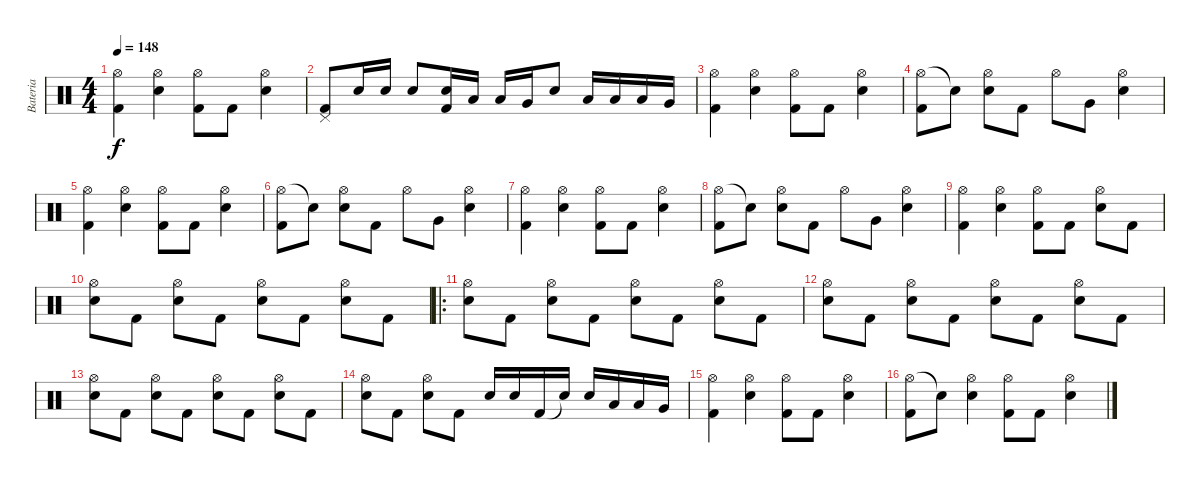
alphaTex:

\track ("Bateria" "Bateria") {instrument percussion}
\staff {score}
\articulation defaults
\ts (4 4)
\tempo 148
\clef neutral
\ks c
("Hi-Hat (open)" "Kick (hit) 2").4{dy f} ("Hi-Hat (open)" "Electric Snare (hit)").4 ("Hi-Hat (open)" "Kick (hit) 2").8 "Kick (hit) 2".8 ("Hi-Hat (open)" "Electric Snare (hit)").4 |
("Pedal Hi-Hat (hit)" "Kick (hit) 2").8 "Electric Snare (hit)".16 "Electric Snare (hit)".16 "Electric Snare (hit)".8 ("Electric Snare (hit)" "Kick (hit) 2").16 "Low Tom (hit)".16 "Low Tom (hit)".16 "Very Low Tom (hit)".16 "Electric Snare (hit)".8 "Low Tom (hit)".16 "Low Tom (hit)".16 "Low Tom (hit)".16 "Very Low Tom (hit)".16 |
("Hi-Hat (open)" "Kick (hit) 2").4 ("Hi-Hat (open)" "Electric Snare (hit)").4 ("Hi-Hat (open)" "Kick (hit) 2").8 "Kick (hit) 2".8 ("Hi-Hat (open)" "Electric Snare (hit)").4 |
("Hi-Hat (open)" "Kick (hit) 2").8 "Snare (hit)"{t}.8 ("Hi-Hat (open)" "Electric Snare (hit)").8 "Kick (hit) 2".8 "Hi-Hat (open)".8 "Very Low Tom (hit)".8 ("Hi-Hat (open)" "Electric Snare (hit)").4 |
("Hi-Hat (open)" "Kick (hit) 2").4 ("Hi-Hat (open)" "Electric Snare (hit)").4 ("Hi-Hat (open)" "Kick (hit) 2").8 "Kick (hit) 2".8 ("Hi-Hat (open)" "Electric Snare (hit)").4 |
("Hi-Hat (open)" "Kick (hit) 2").8 "Snare (hit)"{t}.8 ("Hi-Hat (open)" "Electric Snare (hit)").8 "Kick (hit) 2".8 "Hi-Hat (open)".8 "Very Low Tom (hit)".8 ("Hi-Hat (open)" "Electric Snare (hit)").4 |
("Hi-Hat (open)" "Kick (hit) 2").4 ("Hi-Hat (open)" "Electric Snare (hit)").4 ("Hi-Hat (open)" "Kick (hit) 2").8 "Kick (hit) 2".8 ("Hi-Hat (open)" "Electric Snare (hit)").4 |
("Hi-Hat (open)" "Kick (hit) 2").8 "Snare (hit)"{t}.8 ("Hi-Hat (open)" "Electric Snare (hit)").8 "Kick (hit) 2".8 "Hi-Hat (open)".8 "Very Low Tom (hit)".8 ("Hi-Hat (open)" "Electric Snare (hit)").4 |
("Hi-Hat (open)" "Kick (hit) 2").4 ("Hi-Hat (open)" "Electric Snare (hit)").4 ("Hi-Hat (open)" "Kick (hit) 2").8 "Kick (hit) 2".8 ("Hi-Hat (open)" "Electric Snare (hit)").8 "Kick (hit) 2".8 |
("Hi-Hat (open)" "Electric Snare (hit)").8 "Kick (hit) 2".8 ("Hi-Hat (open)" "Electric Snare (hit)").8 "Kick (hit) 2".8 ("Hi-Hat (open)" "Electric Snare (hit)").8 "Kick (hit) 2".8 ("Hi-Hat (open)" "Electric Snare (hit)").8 "Kick (hit) 2".8 |
\ro
("Hi-Hat (open)" "Electric Snare (hit)").8 "Kick (hit) 2".8 ("Hi-Hat (open)" "Electric Snare (hit)").8 "Kick (hit) 2".8 ("Hi-Hat (open)" "Electric Snare (hit)").8 "Kick (hit) 2".8 ("Hi-Hat (open)" "Electric Snare (hit)").8 "Kick (hit) 2".8 |
("Hi-Hat (open)" "Electric Snare (hit)").8 "Kick (hit) 2".8 ("Hi-Hat (open)" "Electric Snare (hit)").8 "Kick (hit) 2".8 ("Hi-Hat (open)" "Electric Snare (hit)").8 "Kick (hit) 2".8 ("Hi-Hat (open)" "Electric Snare (hit)").8 "Kick (hit) 2".8 |
("Hi-Hat (open)" "Electric Snare (hit)").8 "Kick (hit) 2".8 ("Hi-Hat (open)" "Electric Snare (hit)").8 "Kick (hit) 2".8 ("Hi-Hat (open)" "Electric Snare (hit)").8 "Kick (hit) 2".8 ("Hi-Hat (open)" "Electric Snare (hit)").8 "Kick (hit) 2".8 |
("Hi-Hat (open)" "Electric Snare (hit)").8 "Kick (hit) 2".8 ("Hi-Hat (open)" "Electric Snare (hit)").8 "Kick (hit) 2".8 "Electric Snare (hit)".16 "Electric Snare (hit)".16 "Kick (hit) 2".16 "Snare (hit)"{t}.16 "Electric Snare (hit)".16 "Low Tom (hit)".16 "Low Tom (hit)".16 "Very Low Tom (hit)".16 |
("Hi-Hat (open)" "Kick (hit) 2").4 ("Hi-Hat (open)" "Electric Snare (hit)").4 ("Hi-Hat (open)" "Kick (hit) 2").8 "Kick (hit) 2".8 ("Hi-Hat (open)" "Electric Snare (hit)").4 |
("Hi-Hat (open)" "Kick (hit) 2").8 "Snare (hit)"{t}.8 ("Hi-Hat (open)" "Electric Snare (hit)").4 ("Hi-Hat (open)" "Kick (hit) 2").8 "Kick (hit) 2".8 ("Hi-Hat (open)" "Electric Snare (hit)").4
